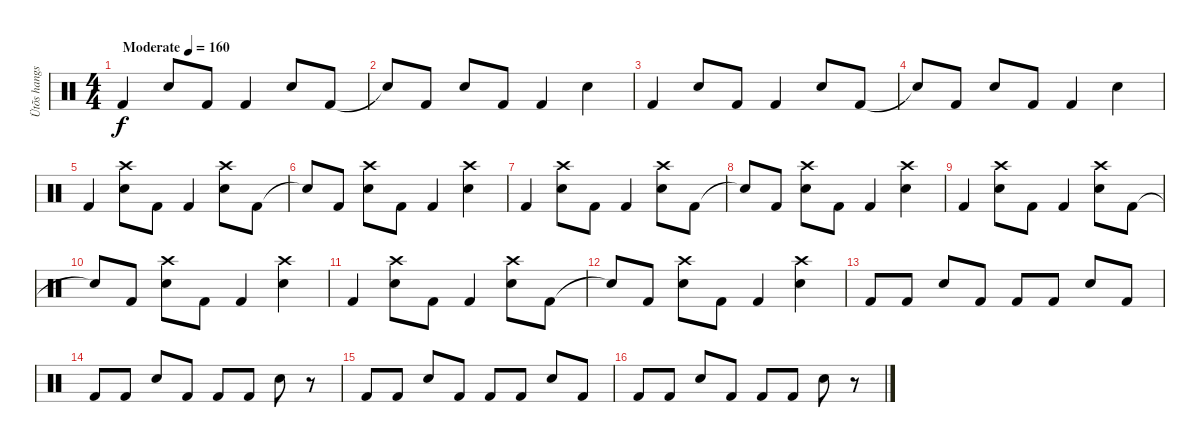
\track ("Ütõs hangszer" "Ütõs hangs") {instrument percussion}
\staff {score}
\articulation defaults
\ts (4 4)
\tempo (160 "Moderate")
\clef neutral
\ks c "Kick (hit) 2".4{dy f} "Electric Snare (hit)".8 "Kick (hit) 2".8 "Kick (hit) 2".4 "Electric Snare (hit)".8 "Kick (hit) 2".8
|
"Snare (hit)"{t}.8 "Kick (hit) 2".8 "Electric Snare (hit)".8 "Kick (hit) 2".8 "Kick (hit) 2".4 "Electric Snare (hit)".4 |
"Kick (hit) 2".4 "Electric Snare (hit)".8 "Kick (hit) 2".8 "Kick (hit) 2".4 "Electric Snare (hit)".8 "Kick (hit) 2".8 |
"Snare (hit)"{t}.8 "Kick (hit) 2".8 "Electric Snare (hit)".8 "Kick (hit) 2".8 "Kick (hit) 2".4 "Electric Snare (hit)".4 |
"Kick (hit) 2".4 ("Crash high (hit)" "Electric Snare (hit)").8 "Kick (hit) 2".8 "Kick (hit) 2".4 ("Crash high (hit)" "Electric Snare (hit)").8 "Kick (hit) 2".8 |
"Snare (hit)"{t}.8 "Kick (hit) 2".8 ("Crash high (hit)" "Electric Snare (hit)").8 "Kick (hit) 2".8 "Kick (hit) 2".4 ("Crash high (hit)" "Electric Snare (hit)").4 |
"Kick (hit) 2".4 ("Crash high (hit)" "Electric Snare (hit)").8 "Kick (hit) 2".8 "Kick (hit) 2".4 ("Crash high (hit)" "Electric Snare (hit)").8 "Kick (hit) 2".8 |
"Snare (hit)"{t}.8 "Kick (hit) 2".8 ("Crash high (hit)" "Electric Snare (hit)").8 "Kick (hit) 2".8 "Kick (hit) 2".4 ("Crash high (hit)" "Electric Snare (hit)").4 |
"Kick (hit) 2".4 ("Crash high (hit)" "Electric Snare (hit)").8 "Kick (hit) 2".8 "Kick (hit) 2".4 ("Crash high (hit)" "Electric Snare (hit)").8 "Kick (hit) 2".8 |
"Snare (hit)"{t}.8 "Kick (hit) 2".8 ("Crash high (hit)" "Electric Snare (hit)").8 "Kick (hit) 2".8 "Kick (hit) 2".4 ("Crash high (hit)" "Electric Snare (hit)").4 |
"Kick (hit) 2".4 ("Crash high (hit)" "Electric Snare (hit)").8 "Kick (hit) 2".8 "Kick (hit) 2".4 ("Crash high (hit)" "Electric Snare (hit)").8 "Kick (hit) 2".8 |
"Snare (hit)"{t}.8 "Kick (hit) 2".8 ("Crash high (hit)" "Electric Snare (hit)").8 "Kick (hit) 2".8 "Kick (hit) 2".4 ("Crash high (hit)" "Electric Snare (hit)").4 |
"Kick (hit) 2".8 "Kick (hit) 2".8 "Electric Snare (hit)".8 "Kick (hit) 2".8 "Kick (hit) 2".8 "Kick (hit) 2".8 "Electric Snare (hit)".8 "Kick (hit) 2".8 |
"Kick (hit) 2".8 "Kick (hit) 2".8 "Electric Snare (hit)".8 "Kick (hit) 2".8 "Kick (hit) 2".8 "Kick (hit) 2".8 "Electric Snare (hit)".8 r.8 |
"Kick (hit) 2".8 "Kick (hit) 2".8 "Electric Snare (hit)".8 "Kick (hit) 2".8 "Kick (hit) 2".8 "Kick (hit) 2".8 "Electric Snare (hit)".8 "Kick (hit) 2".8 |
"Kick (hit) 2".8 "Kick (hit) 2".8 "Electric Snare (hit)".8 "Kick (hit) 2".8 "Kick (hit) 2".8 "Kick (hit) 2".8 "Electric Snare (hit)".8 r.8
